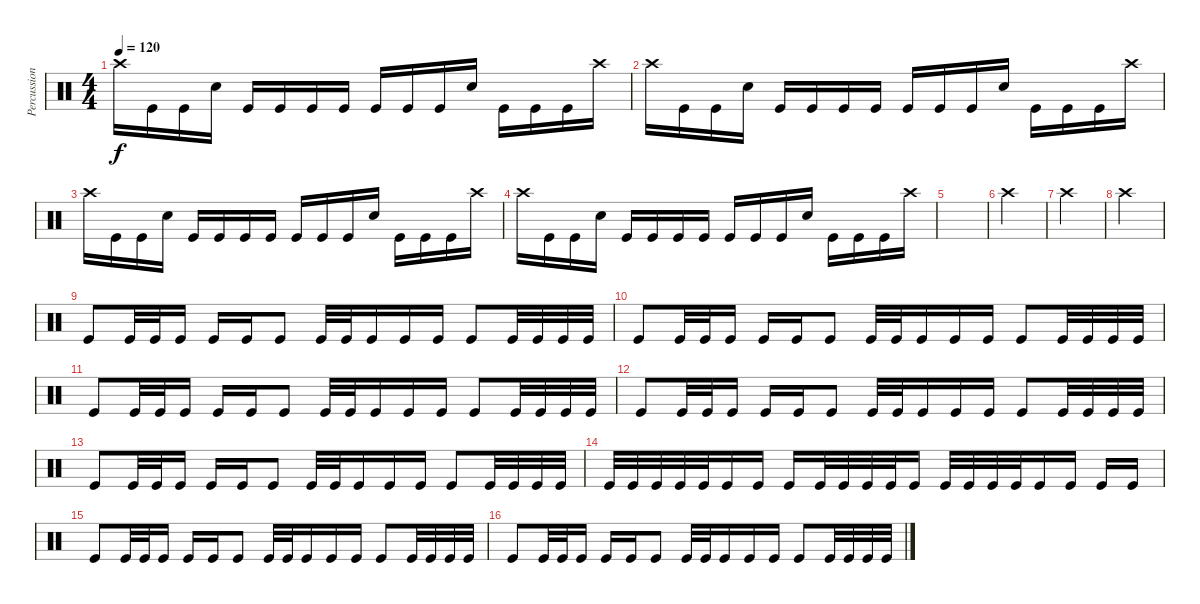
\track ("Percussion" "Percussion") {instrument percussion}
\staff {score}
\articulation defaults
\ts (4 4)
\tempo 120
\clef neutral
\ks c "Crash high (hit)".16{dy f} "Kick (hit)".16 "Kick (hit)".16 "Snare (hit) 2".16 "Kick (hit)".16 "Kick (hit)".16 "Kick (hit)".16 "Kick (hit)".16 "Kick (hit)".16 "Kick (hit)".16 "Kick (hit)".16 "Snare (hit) 2".16 "Kick (hit)".16 "Kick (hit)".16 "Kick (hit)".16 "Crash high (hit)".16
|
"Crash high (hit)".16 "Kick (hit)".16 "Kick (hit)".16 "Snare (hit) 2".16 "Kick (hit)".16 "Kick (hit)".16 "Kick (hit)".16 "Kick (hit)".16 "Kick (hit)".16 "Kick (hit)".16 "Kick (hit)".16 "Snare (hit) 2".16 "Kick (hit)".16 "Kick (hit)".16 "Kick (hit)".16 "Crash high (hit)".16 |
"Crash high (hit)".16 "Kick (hit)".16 "Kick (hit)".16 "Snare (hit) 2".16 "Kick (hit)".16 "Kick (hit)".16 "Kick (hit)".16 "Kick (hit)".16 "Kick (hit)".16 "Kick (hit)".16 "Kick (hit)".16 "Snare (hit) 2".16 "Kick (hit)".16 "Kick (hit)".16 "Kick (hit)".16 "Crash high (hit)".16 |
"Crash high (hit)".16 "Kick (hit)".16 "Kick (hit)".16 "Snare (hit) 2".16 "Kick (hit)".16 "Kick (hit)".16 "Kick (hit)".16 "Kick (hit)".16 "Kick (hit)".16 "Kick (hit)".16 "Kick (hit)".16 "Snare (hit) 2".16 "Kick (hit)".16 "Kick (hit)".16 "Kick (hit)".16 "Crash high (hit)".16 |
|
"Crash high (hit)".4 |
"Crash high (hit)".4 |
"Crash high (hit)".4 |
"Kick (hit)".8 "Kick (hit)".32 "Kick (hit)".32 "Kick (hit)".16 "Kick (hit)".16 "Kick (hit)".16 "Kick (hit)".8 "Kick (hit)".32 "Kick (hit)".32 "Kick (hit)".16 "Kick (hit)".16 "Kick (hit)".16 "Kick (hit)".8 "Kick (hit)".32 "Kick (hit)".32 "Kick (hit)".32 "Kick (hit)".32 |
"Kick (hit)".8 "Kick (hit)".32 "Kick (hit)".32 "Kick (hit)".16 "Kick (hit)".16 "Kick (hit)".16 "Kick (hit)".8 "Kick (hit)".32 "Kick (hit)".32 "Kick (hit)".16 "Kick (hit)".16 "Kick (hit)".16 "Kick (hit)".8 "Kick (hit)".32 "Kick (hit)".32 "Kick (hit)".32 "Kick (hit)".32 |
"Kick (hit)".8 "Kick (hit)".32 "Kick (hit)".32 "Kick (hit)".16 "Kick (hit)".16 "Kick (hit)".16 "Kick (hit)".8 "Kick (hit)".32 "Kick (hit)".32 "Kick (hit)".16 "Kick (hit)".16 "Kick (hit)".16 "Kick (hit)".8 "Kick (hit)".32 "Kick (hit)".32 "Kick (hit)".32 "Kick (hit)".32 |
"Kick (hit)".8 "Kick (hit)".32 "Kick (hit)".32 "Kick (hit)".16 "Kick (hit)".16 "Kick (hit)".16 "Kick (hit)".8 "Kick (hit)".32 "Kick (hit)".32 "Kick (hit)".16 "Kick (hit)".16 "Kick (hit)".16 "Kick (hit)".8 "Kick (hit)".32 "Kick (hit)".32 "Kick (hit)".32 "Kick (hit)".32 |
"Kick (hit)".8 "Kick (hit)".32 "Kick (hit)".32 "Kick (hit)".16 "Kick (hit)".16 "Kick (hit)".16 "Kick (hit)".8 "Kick (hit)".32 "Kick (hit)".32 "Kick (hit)".16 "Kick (hit)".16 "Kick (hit)".16 "Kick (hit)".8 "Kick (hit)".32 "Kick (hit)".32 "Kick (hit)".32 "Kick (hit)".32 |
"Kick (hit)".32 "Kick (hit)".32 "Kick (hit)".32 "Kick (hit)".32 "Kick (hit)".32 "Kick (hit)".16 "Kick (hit)".16 "Kick (hit)".16 "Kick (hit)".32 "Kick (hit)".32 "Kick (hit)".32 "Kick (hit)".32 "Kick (hit)".16 "Kick (hit)".32 "Kick (hit)".32 "Kick (hit)".32 "Kick (hit)".32 "Kick (hit)".16 "Kick (hit)".16 "Kick (hit)".16 "Kick (hit)".16 |
"Kick (hit)".8 "Kick (hit)".32 "Kick (hit)".32 "Kick (hit)".16 "Kick (hit)".16 "Kick (hit)".16 "Kick (hit)".8 "Kick (hit)".32 "Kick (hit)".32 "Kick (hit)".16 "Kick (hit)".16 "Kick (hit)".16 "Kick (hit)".8 "Kick (hit)".32 "Kick (hit)".32 "Kick (hit)".32 "Kick (hit)".32 |
"Kick (hit)".8 "Kick (hit)".32 "Kick (hit)".32 "Kick (hit)".16 "Kick (hit)".16 "Kick (hit)".16 "Kick (hit)".8 "Kick (hit)".32 "Kick (hit)".32 "Kick (hit)".16 "Kick (hit)".16 "Kick (hit)".16 "Kick (hit)".8 "Kick (hit)".32 "Kick (hit)".32 "Kick (hit)".32 "Kick (hit)".32
